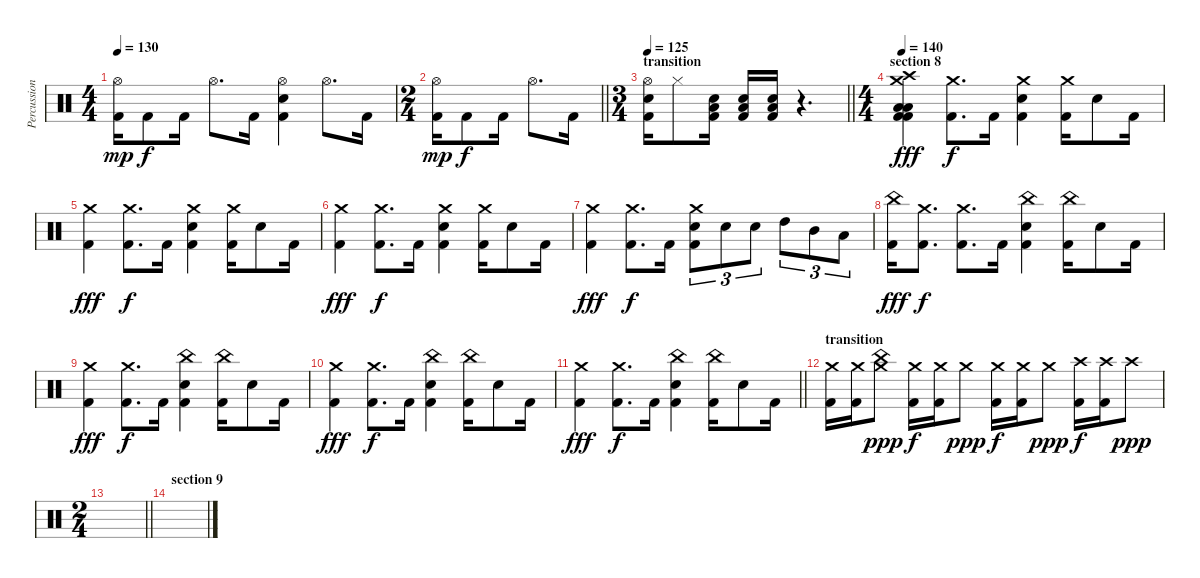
\track ("Percussion" "Percussion") {instrument percussion}
\staff {score}
\articulation defaults
\ts (4 4)
\tempo 130
\clef neutral
\ks c
("Hi-Hat (open)" "Kick (hit) 2").16{dy mp} "Kick (hit) 2".8{dy f} "Kick (hit) 2".16 "Hi-Hat (open)".8{d} "Kick (hit) 2".16 ("Hi-Hat (open)" "Electric Snare (hit)" "Kick (hit) 2").4 "Hi-Hat (open)".8{d} "Kick (hit) 2".16 |
\ts (2 4)
\barLineRight lightlight
("Hi-Hat (open)" "Kick (hit) 2").16{dy mp} "Kick (hit) 2".8{dy f} "Kick (hit) 2".16 "Hi-Hat (open)".8{d} "Kick (hit) 2".16 |
\ts (3 4)
\section ("" "transition")
\tempo 125
\barLineRight lightlight
("Hi-Hat (open)" "Electric Snare (hit)" "Kick (hit) 2").16 "Hi-Hat (closed)".8 ("Electric Snare (hit)" "Low Floor Tom (hit)" "Kick (hit) 2").16 ("Electric Snare (hit)" "Low Floor Tom (hit)" "Kick (hit) 2").16 ("Electric Snare (hit)" "Low Floor Tom (hit)" "Kick (hit) 2").16 r.4{d} |
\ts (4 4)
\section ("" "section 8")
\tempo 140
("Crash medium (hit)" "Crash high (hit)" "Low Floor Tom (hit)" "Low Floor Tom (hit)" "Kick (hit) 2" "Kick (hit) 2").4{dy fff} ("Crash medium (hit)" "Kick (hit) 2").8{d dy f} "Kick (hit) 2".16 ("Crash medium (hit)" "Electric Snare (hit)" "Kick (hit) 2").4 ("Crash medium (hit)" "Kick (hit) 2").16 "Electric Snare (hit)".8 "Kick (hit) 2".16 |
("Crash medium (hit)" "Kick (hit) 2").4{dy fff} ("Crash medium (hit)" "Kick (hit) 2").8{d dy f} "Kick (hit) 2".16 ("Crash medium (hit)" "Electric Snare (hit)" "Kick (hit) 2").4 ("Crash medium (hit)" "Kick (hit) 2").16 "Electric Snare (hit)".8 "Kick (hit) 2".16 |
("Crash medium (hit)" "Kick (hit) 2").4{dy fff} ("Crash medium (hit)" "Kick (hit) 2").8{d dy f} "Kick (hit) 2".16 ("Crash medium (hit)" "Electric Snare (hit)" "Kick (hit) 2").4 ("Crash medium (hit)" "Kick (hit) 2").16 "Electric Snare (hit)".8 "Kick (hit) 2".16 |
("Crash medium (hit)" "Kick (hit) 2").4{dy fff} ("Crash medium (hit)" "Kick (hit) 2").8{d dy f} "Kick (hit) 2".16 ("Crash medium (hit)" "Electric Snare (hit)" "Kick (hit) 2").8{tu (3 2)} "Electric Snare (hit)".8{tu (3 2)} "Electric Snare (hit)".8{tu (3 2)} "High Tom (hit)".8{tu (3 2)} "Mid Tom (hit)".8{tu (3 2)} "Low Tom (hit)".8{tu (3 2)} |
("China (hit)" "Kick (hit) 2").16{dy fff} ("Crash medium (hit)" "Kick (hit) 2").8{d dy f} ("Crash medium (hit)" "Kick (hit) 2").8{d} "Kick (hit) 2".16 ("China (hit)" "Electric Snare (hit)" "Kick (hit) 2").4 ("China (hit)" "Kick (hit) 2").16 "Electric Snare (hit)".8 "Kick (hit) 2".16 |
("Crash medium (hit)" "Kick (hit) 2").4{dy fff} ("Crash medium (hit)" "Kick (hit) 2").8{d dy f} "Kick (hit) 2".16 ("China (hit)" "Electric Snare (hit)" "Kick (hit) 2").4 ("China (hit)" "Kick (hit) 2").16 "Electric Snare (hit)".8 "Kick (hit) 2".16 |
("Crash medium (hit)" "Kick (hit) 2").4{dy fff} ("Crash medium (hit)" "Kick (hit) 2").8{d dy f} "Kick (hit) 2".16 ("China (hit)" "Electric Snare (hit)" "Kick (hit) 2").4 ("China (hit)" "Kick (hit) 2").16 "Electric Snare (hit)".8 "Kick (hit) 2".16 |
\barLineRight lightlight
("Crash medium (hit)" "Kick (hit) 2").4{dy fff} ("Crash medium (hit)" "Kick (hit) 2").8{d dy f} "Kick (hit) 2".16 ("China (hit)" "Electric Snare (hit)" "Kick (hit) 2").4 ("China (hit)" "Kick (hit) 2").16 "Electric Snare (hit)".8 "Kick (hit) 2".16 |
\section ("" "transition")
("Crash medium (hit)" "Kick (hit) 2").16 ("Crash medium (hit)" "Kick (hit) 2").16 ("Crash medium (hit)" "China (hit)").8{dy ppp} ("Crash medium (hit)" "Kick (hit) 2").16{dy f} ("Crash medium (hit)" "Kick (hit) 2").16 "Crash medium (hit)".8{dy ppp} ("Crash medium (hit)" "Kick (hit) 2").16{dy f} ("Crash medium (hit)" "Kick (hit) 2").16 "Crash medium (hit)".8{dy ppp} ("Crash high (hit)" "Kick (hit) 2").16{dy f} ("Crash high (hit)" "Kick (hit) 2").16 "Crash high (hit)".8{dy ppp} |
\ts (2 4)
\barLineRight lightlight
|
\section ("" "section 9")
